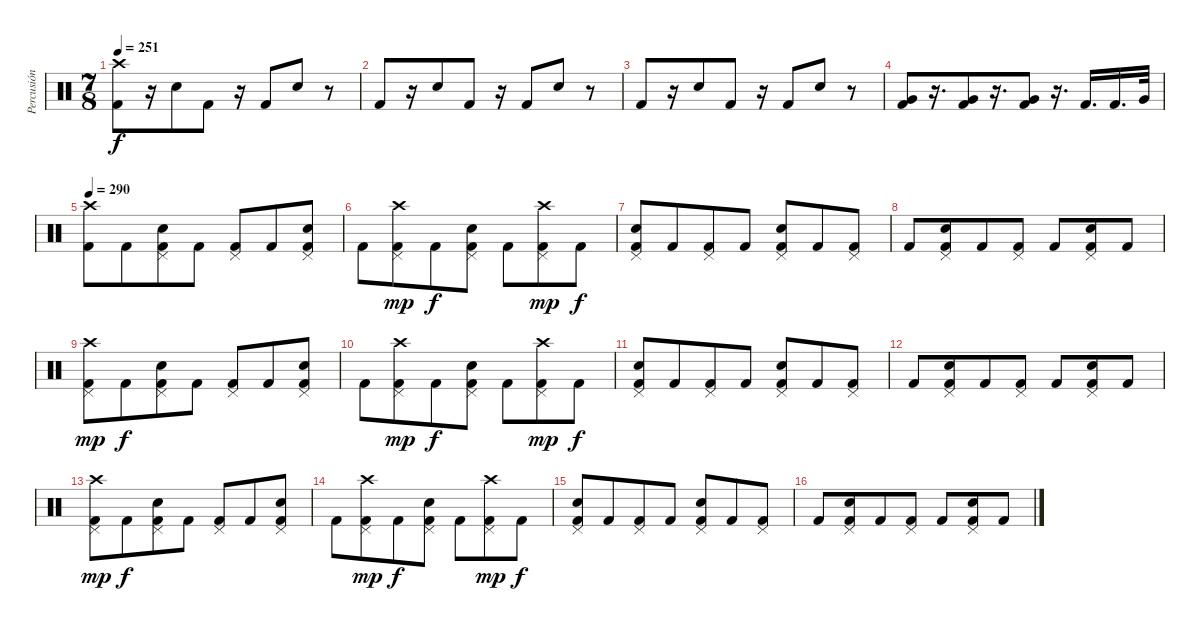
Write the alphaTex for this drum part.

\track ("Percusión" "Percusión") {instrument percussion}
\staff {score}
\articulation defaults
\ts (7 8)
\tempo 251
\clef neutral
\ks c
("Crash high (hit)" "Kick (hit) 2").8{dy f} r.16 "Snare (hit) 2".8 "Kick (hit) 2".8 r.16 "Kick (hit) 2".8 "Snare (hit) 2".8 r.8 |
"Kick (hit) 2".8 r.16 "Snare (hit) 2".8 "Kick (hit) 2".8 r.16 "Kick (hit) 2".8 "Snare (hit) 2".8 r.8 |
"Kick (hit) 2".8 r.16 "Snare (hit) 2".8 "Kick (hit) 2".8 r.16 "Kick (hit) 2".8 "Snare (hit) 2".8 r.8 |
("Kick (hit) 2" "Very Low Tom (hit)").8 r.16{d} ("Kick (hit) 2" "Very Low Tom (hit)").8 r.16{d} ("Kick (hit) 2" "Very Low Tom (hit)").8 r.16{d} "Kick (hit) 2".16{d} "Kick (hit) 2".16{d} "Very Low Tom (hit)".32 |
\tempo 290
("Crash high (hit)" "Kick (hit) 2").8 "Kick (hit) 2".8 ("Pedal Hi-Hat (hit)" "Snare (hit) 2" "Kick (hit) 2").8 "Kick (hit) 2".8 ("Pedal Hi-Hat (hit)" "Kick (hit) 2").8 "Kick (hit) 2".8 ("Pedal Hi-Hat (hit)" "Snare (hit) 2" "Kick (hit) 2").8 |
"Kick (hit) 2".8 ("Crash high (hit)" "Pedal Hi-Hat (hit)" "Kick (hit) 2").8{dy mp} "Kick (hit) 2".8{dy f} ("Pedal Hi-Hat (hit)" "Snare (hit) 2" "Kick (hit) 2").8 "Kick (hit) 2".8 ("Crash high (hit)" "Pedal Hi-Hat (hit)" "Kick (hit) 2").8{dy mp} "Kick (hit) 2".8{dy f} |
("Pedal Hi-Hat (hit)" "Snare (hit) 2" "Kick (hit) 2").8 "Kick (hit) 2".8 ("Pedal Hi-Hat (hit)" "Kick (hit) 2").8 "Kick (hit) 2".8 ("Pedal Hi-Hat (hit)" "Snare (hit) 2" "Kick (hit) 2").8 "Kick (hit) 2".8 ("Pedal Hi-Hat (hit)" "Kick (hit) 2").8 |
"Kick (hit) 2".8 ("Pedal Hi-Hat (hit)" "Snare (hit) 2" "Kick (hit) 2").8 "Kick (hit) 2".8 ("Pedal Hi-Hat (hit)" "Kick (hit) 2").8 "Kick (hit) 2".8 ("Pedal Hi-Hat (hit)" "Snare (hit) 2" "Kick (hit) 2").8 "Kick (hit) 2".8 |
("Crash high (hit)" "Pedal Hi-Hat (hit)" "Kick (hit) 2").8{dy mp} "Kick (hit) 2".8{dy f} ("Pedal Hi-Hat (hit)" "Snare (hit) 2" "Kick (hit) 2").8 "Kick (hit) 2".8 ("Pedal Hi-Hat (hit)" "Kick (hit) 2").8 "Kick (hit) 2".8 ("Pedal Hi-Hat (hit)" "Snare (hit) 2" "Kick (hit) 2").8 |
"Kick (hit) 2".8 ("Crash high (hit)" "Pedal Hi-Hat (hit)" "Kick (hit) 2").8{dy mp} "Kick (hit) 2".8{dy f} ("Pedal Hi-Hat (hit)" "Snare (hit) 2" "Kick (hit) 2").8 "Kick (hit) 2".8 ("Crash high (hit)" "Pedal Hi-Hat (hit)" "Kick (hit) 2").8{dy mp} "Kick (hit) 2".8{dy f} |
("Pedal Hi-Hat (hit)" "Snare (hit) 2" "Kick (hit) 2").8 "Kick (hit) 2".8 ("Pedal Hi-Hat (hit)" "Kick (hit) 2").8 "Kick (hit) 2".8 ("Pedal Hi-Hat (hit)" "Snare (hit) 2" "Kick (hit) 2").8 "Kick (hit) 2".8 ("Pedal Hi-Hat (hit)" "Kick (hit) 2").8 |
"Kick (hit) 2".8 ("Pedal Hi-Hat (hit)" "Snare (hit) 2" "Kick (hit) 2").8 "Kick (hit) 2".8 ("Pedal Hi-Hat (hit)" "Kick (hit) 2").8 "Kick (hit) 2".8 ("Pedal Hi-Hat (hit)" "Snare (hit) 2" "Kick (hit) 2").8 "Kick (hit) 2".8 |
("Crash high (hit)" "Pedal Hi-Hat (hit)" "Kick (hit) 2").8{dy mp} "Kick (hit) 2".8{dy f} ("Pedal Hi-Hat (hit)" "Snare (hit) 2" "Kick (hit) 2").8 "Kick (hit) 2".8 ("Pedal Hi-Hat (hit)" "Kick (hit) 2").8 "Kick (hit) 2".8 ("Pedal Hi-Hat (hit)" "Snare (hit) 2" "Kick (hit) 2").8 |
"Kick (hit) 2".8 ("Crash high (hit)" "Pedal Hi-Hat (hit)" "Kick (hit) 2").8{dy mp} "Kick (hit) 2".8{dy f} ("Pedal Hi-Hat (hit)" "Snare (hit) 2" "Kick (hit) 2").8 "Kick (hit) 2".8 ("Crash high (hit)" "Pedal Hi-Hat (hit)" "Kick (hit) 2").8{dy mp} "Kick (hit) 2".8{dy f} |
("Pedal Hi-Hat (hit)" "Snare (hit) 2" "Kick (hit) 2").8 "Kick (hit) 2".8 ("Pedal Hi-Hat (hit)" "Kick (hit) 2").8 "Kick (hit) 2".8 ("Pedal Hi-Hat (hit)" "Snare (hit) 2" "Kick (hit) 2").8 "Kick (hit) 2".8 ("Pedal Hi-Hat (hit)" "Kick (hit) 2").8 |
"Kick (hit) 2".8 ("Pedal Hi-Hat (hit)" "Snare (hit) 2" "Kick (hit) 2").8 "Kick (hit) 2".8 ("Pedal Hi-Hat (hit)" "Kick (hit) 2").8 "Kick (hit) 2".8 ("Pedal Hi-Hat (hit)" "Snare (hit) 2" "Kick (hit) 2").8 "Kick (hit) 2".8
